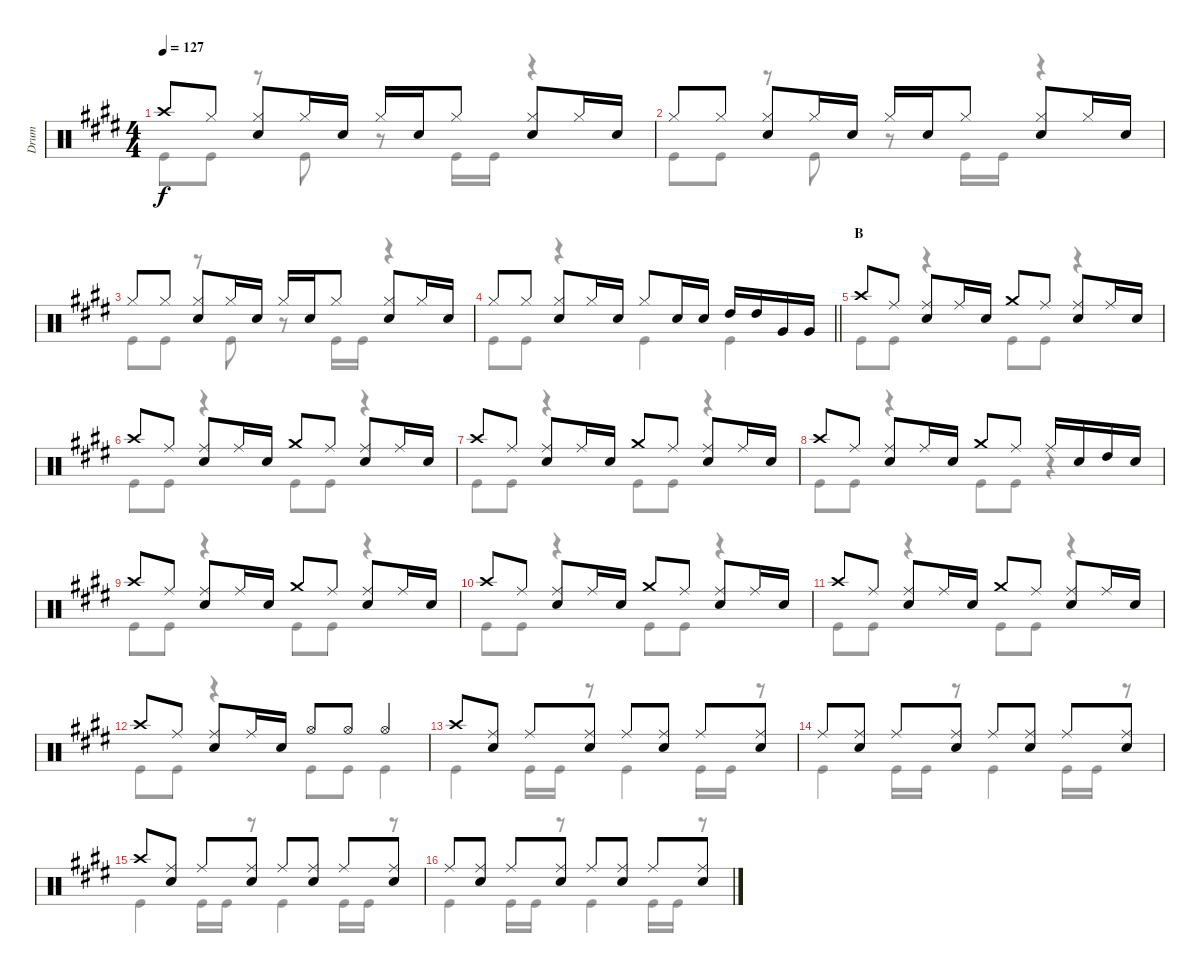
\track ("Drum" "Drum") {instrument percussion}
\staff {score}
\articulation defaults
\voice
\ts (4 4)
\tempo 127
\clef neutral
\ks e "Crash high (hit)".8{dy f} "Hi-Hat (closed)".8
("Hi-Hat (closed)" "Snare (hit) 2").8 "Hi-Hat (closed)".16 "Snare (hit) 2".16 "Hi-Hat (closed)".16 "Snare (hit) 2".16 "Hi-Hat (closed)".8 ("Snare (hit) 2" "Hi-Hat (closed)").8 "Hi-Hat (closed)".16 "Snare (hit) 2".16 |
"Hi-Hat (closed)".8 "Hi-Hat (closed)".8 ("Hi-Hat (closed)" "Snare (hit) 2").8 "Hi-Hat (closed)".16 "Snare (hit) 2".16 "Hi-Hat (closed)".16 "Snare (hit) 2".16 "Hi-Hat (closed)".8 ("Snare (hit) 2" "Hi-Hat (closed)").8 "Hi-Hat (closed)".16 "Snare (hit) 2".16 |
"Hi-Hat (closed)".8 "Hi-Hat (closed)".8 ("Hi-Hat (closed)" "Snare (hit) 2").8 "Hi-Hat (closed)".16 "Snare (hit) 2".16 "Hi-Hat (closed)".16 "Snare (hit) 2".16 "Hi-Hat (closed)".8 ("Snare (hit) 2" "Hi-Hat (closed)").8 "Hi-Hat (closed)".16 "Snare (hit) 2".16 |
\barLineRight lightlight "Hi-Hat (closed)".8 "Hi-Hat (closed)".8
("Hi-Hat (closed)" "Snare (hit) 2").8 "Hi-Hat (closed)".16 "Snare (hit) 2".16 "Hi-Hat (closed)".8 "Snare (hit) 2".16 "Snare (hit) 2".16 "High Tom (hit)".16 "High Tom (hit)".16 "Very Low Tom (hit)".16 "Very Low Tom (hit)".16 |
\section ("" "B")
"Crash high (hit)".8 "Ride (middle)".8 ("Snare (hit) 2" "Ride (middle)").8 "Ride (middle)".16 "Snare (hit) 2".16 "Crash medium (hit)".8 "Ride (middle)".8 ("Ride (middle)" "Snare (hit) 2").8 "Ride (middle)".16 "Snare (hit) 2".16 |
"Crash high (hit)".8 "Ride (middle)".8 ("Snare (hit) 2" "Ride (middle)").8 "Ride (middle)".16 "Snare (hit) 2".16 "Crash medium (hit)".8 "Ride (middle)".8 ("Ride (middle)" "Snare (hit) 2").8 "Ride (middle)".16 "Snare (hit) 2".16 |
"Crash high (hit)".8 "Ride (middle)".8 ("Snare (hit) 2" "Ride (middle)").8 "Ride (middle)".16 "Snare (hit) 2".16 "Crash medium (hit)".8 "Ride (middle)".8 ("Ride (middle)" "Snare (hit) 2").8 "Ride (middle)".16 "Snare (hit) 2".16 |
"Crash high (hit)".8 "Ride (middle)".8 ("Snare (hit) 2" "Ride (middle)").8 "Ride (middle)".16 "Snare (hit) 2".16 "Crash medium (hit)".8 "Ride (middle)".8 "Ride (middle)".16 "Snare (hit) 2".16 "High Tom (hit)".16 "Snare (hit) 2".16 |
"Crash high (hit)".8 "Ride (middle)".8 ("Snare (hit) 2" "Ride (middle)").8 "Ride (middle)".16 "Snare (hit) 2".16 "Crash medium (hit)".8 "Ride (middle)".8 ("Ride (middle)" "Snare (hit) 2").8 "Ride (middle)".16 "Snare (hit) 2".16 |
"Crash high (hit)".8 "Ride (middle)".8 ("Snare (hit) 2" "Ride (middle)").8 "Ride (middle)".16 "Snare (hit) 2".16 "Crash medium (hit)".8 "Ride (middle)".8 ("Ride (middle)" "Snare (hit) 2").8 "Ride (middle)".16 "Snare (hit) 2".16 |
"Crash high (hit)".8 "Ride (middle)".8 ("Snare (hit) 2" "Ride (middle)").8 "Ride (middle)".16 "Snare (hit) 2".16 "Crash medium (hit)".8 "Ride (middle)".8 ("Ride (middle)" "Snare (hit) 2").8 "Ride (middle)".16 "Snare (hit) 2".16 |
"Crash high (hit)".8 "Ride (middle)".8 ("Snare (hit) 2" "Ride (middle)").8 "Ride (middle)".16 "Snare (hit) 2".16 "Hi-Hat (open)".8 "Hi-Hat (open)".8 "Hi-Hat (open)".4 |
"Crash high (hit)".8 ("Snare (hit) 2" "Ride (middle)").8 "Ride (middle)".8 ("Ride (middle)" "Snare (hit) 2").8 "Ride (middle)".8 ("Ride (middle)" "Snare (hit) 2").8 "Ride (middle)".8 ("Ride (middle)" "Snare (hit) 2").8 |
"Ride (middle)".8 ("Ride (middle)" "Snare (hit) 2").8 "Ride (middle)".8 ("Ride (middle)" "Snare (hit) 2").8 "Ride (middle)".8 ("Ride (middle)" "Snare (hit) 2").8 "Ride (middle)".8 ("Ride (middle)" "Snare (hit) 2").8 |
"Crash high (hit)".8 ("Snare (hit) 2" "Ride (middle)").8 "Ride (middle)".8 ("Ride (middle)" "Snare (hit) 2").8 "Ride (middle)".8 ("Ride (middle)" "Snare (hit) 2").8 "Ride (middle)".8 ("Ride (middle)" "Snare (hit) 2").8 |
"Ride (middle)".8 ("Ride (middle)" "Snare (hit) 2").8 "Ride (middle)".8 ("Ride (middle)" "Snare (hit) 2").8 "Ride (middle)".8 ("Ride (middle)" "Snare (hit) 2").8 "Ride (middle)".8 ("Ride (middle)" "Snare (hit) 2").8
\voice
\clef neutral
\ottava regular
\simile none
\ks e "Kick (hit)".8{dy f} "Kick (hit)".8
r.8 "Kick (hit)".8 r.8 "Kick (hit)".16 "Kick (hit)".16 r.4 |
"Kick (hit)".8 "Kick (hit)".8 r.8 "Kick (hit)".8 r.8 "Kick (hit)".16 "Kick (hit)".16 r.4 |
"Kick (hit)".8 "Kick (hit)".8 r.8 "Kick (hit)".8 r.8 "Kick (hit)".16 "Kick (hit)".16 r.4 |
\barLineRight lightlight "Kick (hit)".8 "Kick (hit)".8
r.4 "Kick (hit)".4 "Kick (hit)".4 |
"Kick (hit)".8 "Kick (hit)".8 r.4 "Kick (hit)".8 "Kick (hit)".8 r.4 |
"Kick (hit)".8 "Kick (hit)".8 r.4 "Kick (hit)".8 "Kick (hit)".8 r.4 |
"Kick (hit)".8 "Kick (hit)".8 r.4 "Kick (hit)".8 "Kick (hit)".8 r.4 |
"Kick (hit)".8 "Kick (hit)".8 r.4 "Kick (hit)".8 "Kick (hit)".8 r.4 |
"Kick (hit)".8 "Kick (hit)".8 r.4 "Kick (hit)".8 "Kick (hit)".8 r.4 |
"Kick (hit)".8 "Kick (hit)".8 r.4 "Kick (hit)".8 "Kick (hit)".8 r.4 |
"Kick (hit)".8 "Kick (hit)".8 r.4 "Kick (hit)".8 "Kick (hit)".8 r.4 |
"Kick (hit)".8 "Kick (hit)".8 r.4 "Kick (hit)".8 "Kick (hit)".8 "Kick (hit)".4 |
"Kick (hit)".4 "Kick (hit)".16 "Kick (hit)".16 r.8 "Kick (hit)".4 "Kick (hit)".16 "Kick (hit)".16 r.8 |
"Kick (hit)".4 "Kick (hit)".16 "Kick (hit)".16 r.8 "Kick (hit)".4 "Kick (hit)".16 "Kick (hit)".16 r.8 |
"Kick (hit)".4 "Kick (hit)".16 "Kick (hit)".16 r.8 "Kick (hit)".4 "Kick (hit)".16 "Kick (hit)".16 r.8 |
"Kick (hit)".4 "Kick (hit)".16 "Kick (hit)".16 r.8 "Kick (hit)".4 "Kick (hit)".16 "Kick (hit)".16 r.8
